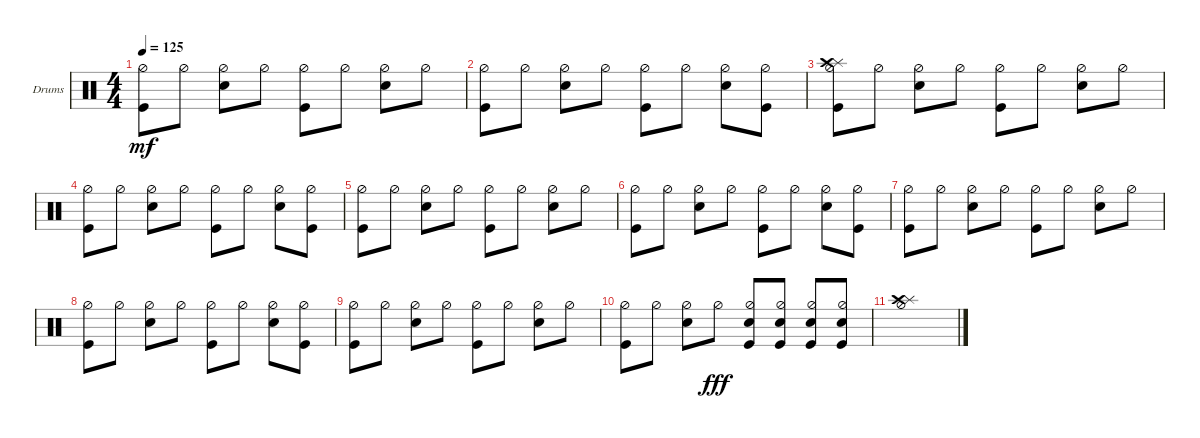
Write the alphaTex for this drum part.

\defaultSystemsLayout 4
\bracketExtendMode groupsimilarinstruments
\firstSystemTrackNameOrientation horizontal
\otherSystemsTrackNameOrientation horizontal
\track ("Drumkit" "Drums") {instrument percussion}
\staff {score}
\articulation defaults
\ts (4 4)
\tempo 125
\clef neutral
\ks c
("Kick (hit)" "Hi-Hat (half)").8{dy mf} "Hi-Hat (half)".8 ("Hi-Hat (half)" "Snare (hit) 2").8 "Hi-Hat (half)".8 ("Kick (hit)" "Hi-Hat (half)").8 "Hi-Hat (half)".8 ("Hi-Hat (half)" "Snare (hit) 2").8 "Hi-Hat (half)".8 |
("Kick (hit)" "Hi-Hat (half)").8 "Hi-Hat (half)".8 ("Hi-Hat (half)" "Snare (hit) 2").8 "Hi-Hat (half)".8 ("Kick (hit)" "Hi-Hat (half)").8 "Hi-Hat (half)".8 ("Hi-Hat (half)" "Snare (hit) 2").8 ("Hi-Hat (half)" "Kick (hit)").8 |
("Kick (hit)" "Hi-Hat (half)" "Splash (hit)" "Crash high (hit)").8 "Hi-Hat (half)".8 ("Hi-Hat (half)" "Snare (hit) 2").8 "Hi-Hat (half)".8 ("Kick (hit)" "Hi-Hat (half)").8 "Hi-Hat (half)".8 ("Hi-Hat (half)" "Snare (hit) 2").8 "Hi-Hat (half)".8 |
("Kick (hit)" "Hi-Hat (half)").8 "Hi-Hat (half)".8 ("Hi-Hat (half)" "Snare (hit) 2").8 "Hi-Hat (half)".8 ("Kick (hit)" "Hi-Hat (half)").8 "Hi-Hat (half)".8 ("Hi-Hat (half)" "Snare (hit) 2").8 ("Hi-Hat (half)" "Kick (hit)").8 |
("Kick (hit)" "Hi-Hat (half)").8 "Hi-Hat (half)".8 ("Hi-Hat (half)" "Snare (hit) 2").8 "Hi-Hat (half)".8 ("Kick (hit)" "Hi-Hat (half)").8 "Hi-Hat (half)".8 ("Hi-Hat (half)" "Snare (hit) 2").8 "Hi-Hat (half)".8 |
("Kick (hit)" "Hi-Hat (half)").8 "Hi-Hat (half)".8 ("Hi-Hat (half)" "Snare (hit) 2").8 "Hi-Hat (half)".8 ("Kick (hit)" "Hi-Hat (half)").8 "Hi-Hat (half)".8 ("Hi-Hat (half)" "Snare (hit) 2").8 ("Hi-Hat (half)" "Kick (hit)").8 |
("Kick (hit)" "Hi-Hat (half)").8 "Hi-Hat (half)".8 ("Hi-Hat (half)" "Snare (hit) 2").8 "Hi-Hat (half)".8 ("Kick (hit)" "Hi-Hat (half)").8 "Hi-Hat (half)".8 ("Hi-Hat (half)" "Snare (hit) 2").8 "Hi-Hat (half)".8 |
("Kick (hit)" "Hi-Hat (half)").8 "Hi-Hat (half)".8 ("Hi-Hat (half)" "Snare (hit) 2").8 "Hi-Hat (half)".8 ("Kick (hit)" "Hi-Hat (half)").8 "Hi-Hat (half)".8 ("Hi-Hat (half)" "Snare (hit) 2").8 ("Hi-Hat (half)" "Kick (hit)").8 |
("Kick (hit)" "Hi-Hat (half)").8 "Hi-Hat (half)".8 ("Hi-Hat (half)" "Snare (hit) 2").8 "Hi-Hat (half)".8 ("Kick (hit)" "Hi-Hat (half)").8 "Hi-Hat (half)".8 ("Hi-Hat (half)" "Snare (hit) 2").8 "Hi-Hat (half)".8 |
("Kick (hit)" "Hi-Hat (half)").8 "Hi-Hat (half)".8 ("Hi-Hat (half)" "Snare (hit) 2").8 "Hi-Hat (half)".8{dy fff} ("Hi-Hat (half)" "Kick (hit)" "Snare (hit) 2").8 ("Hi-Hat (half)" "Kick (hit)" "Snare (hit) 2").8 ("Hi-Hat (half)" "Kick (hit)" "Snare (hit) 2").8 ("Hi-Hat (half)" "Kick (hit)" "Snare (hit) 2").8 |
("Splash (hit)" "Crash high (hit)" "Hi-Hat (half)").1
